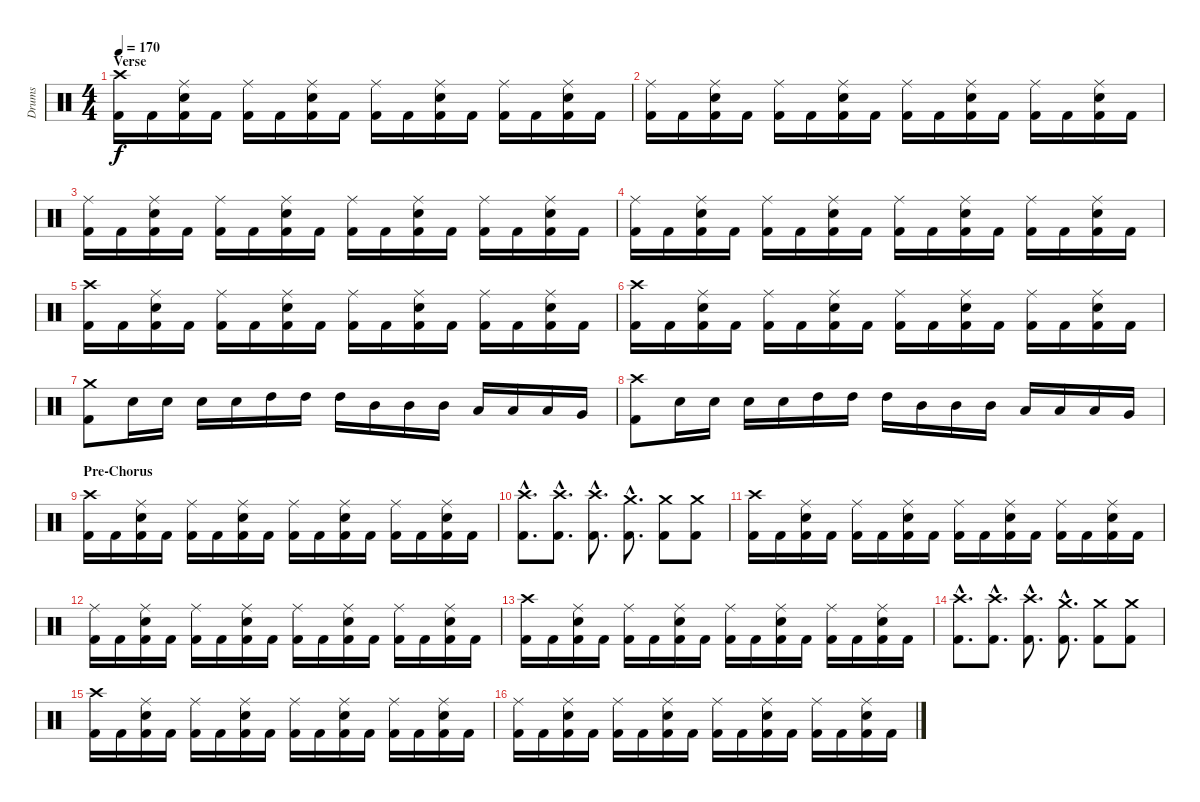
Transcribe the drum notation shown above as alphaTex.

\track ("Drums" "Drums") {instrument percussion}
\staff {score}
\articulation defaults
\ts (4 4)
\section ("" "Verse")
\tempo 170
\clef neutral
\ks c
("Crash high (hit)" "Kick (hit) 2").16{dy f} "Kick (hit) 2".16 ("Ride (middle)" "Snare (hit) 2" "Kick (hit) 2").16 "Kick (hit) 2".16 ("Ride (middle)" "Kick (hit) 2").16 "Kick (hit) 2".16 ("Ride (middle)" "Snare (hit) 2" "Kick (hit) 2").16 "Kick (hit) 2".16 ("Ride (middle)" "Kick (hit) 2").16 "Kick (hit) 2".16 ("Ride (middle)" "Snare (hit) 2" "Kick (hit) 2").16 "Kick (hit) 2".16 ("Ride (middle)" "Kick (hit) 2").16 "Kick (hit) 2".16 ("Ride (middle)" "Snare (hit) 2" "Kick (hit) 2").16 "Kick (hit) 2".16 |
("Ride (middle)" "Kick (hit) 2").16 "Kick (hit) 2".16 ("Ride (middle)" "Snare (hit) 2" "Kick (hit) 2").16 "Kick (hit) 2".16 ("Ride (middle)" "Kick (hit) 2").16 "Kick (hit) 2".16 ("Ride (middle)" "Snare (hit) 2" "Kick (hit) 2").16 "Kick (hit) 2".16 ("Ride (middle)" "Kick (hit) 2").16 "Kick (hit) 2".16 ("Ride (middle)" "Snare (hit) 2" "Kick (hit) 2").16 "Kick (hit) 2".16 ("Ride (middle)" "Kick (hit) 2").16 "Kick (hit) 2".16 ("Ride (middle)" "Snare (hit) 2" "Kick (hit) 2").16 "Kick (hit) 2".16 |
("Ride (middle)" "Kick (hit) 2").16 "Kick (hit) 2".16 ("Ride (middle)" "Snare (hit) 2" "Kick (hit) 2").16 "Kick (hit) 2".16 ("Ride (middle)" "Kick (hit) 2").16 "Kick (hit) 2".16 ("Ride (middle)" "Snare (hit) 2" "Kick (hit) 2").16 "Kick (hit) 2".16 ("Ride (middle)" "Kick (hit) 2").16 "Kick (hit) 2".16 ("Ride (middle)" "Snare (hit) 2" "Kick (hit) 2").16 "Kick (hit) 2".16 ("Ride (middle)" "Kick (hit) 2").16 "Kick (hit) 2".16 ("Ride (middle)" "Snare (hit) 2" "Kick (hit) 2").16 "Kick (hit) 2".16 |
("Ride (middle)" "Kick (hit) 2").16 "Kick (hit) 2".16 ("Ride (middle)" "Snare (hit) 2" "Kick (hit) 2").16 "Kick (hit) 2".16 ("Ride (middle)" "Kick (hit) 2").16 "Kick (hit) 2".16 ("Ride (middle)" "Snare (hit) 2" "Kick (hit) 2").16 "Kick (hit) 2".16 ("Ride (middle)" "Kick (hit) 2").16 "Kick (hit) 2".16 ("Ride (middle)" "Snare (hit) 2" "Kick (hit) 2").16 "Kick (hit) 2".16 ("Ride (middle)" "Kick (hit) 2").16 "Kick (hit) 2".16 ("Ride (middle)" "Snare (hit) 2" "Kick (hit) 2").16 "Kick (hit) 2".16 |
("Crash high (hit)" "Kick (hit) 2").16 "Kick (hit) 2".16 ("Ride (middle)" "Snare (hit) 2" "Kick (hit) 2").16 "Kick (hit) 2".16 ("Ride (middle)" "Kick (hit) 2").16 "Kick (hit) 2".16 ("Ride (middle)" "Snare (hit) 2" "Kick (hit) 2").16 "Kick (hit) 2".16 ("Ride (middle)" "Kick (hit) 2").16 "Kick (hit) 2".16 ("Ride (middle)" "Snare (hit) 2" "Kick (hit) 2").16 "Kick (hit) 2".16 ("Ride (middle)" "Kick (hit) 2").16 "Kick (hit) 2".16 ("Ride (middle)" "Snare (hit) 2" "Kick (hit) 2").16 "Kick (hit) 2".16 |
("Crash high (hit)" "Kick (hit) 2").16 "Kick (hit) 2".16 ("Ride (middle)" "Snare (hit) 2" "Kick (hit) 2").16 "Kick (hit) 2".16 ("Ride (middle)" "Kick (hit) 2").16 "Kick (hit) 2".16 ("Ride (middle)" "Snare (hit) 2" "Kick (hit) 2").16 "Kick (hit) 2".16 ("Ride (middle)" "Kick (hit) 2").16 "Kick (hit) 2".16 ("Ride (middle)" "Snare (hit) 2" "Kick (hit) 2").16 "Kick (hit) 2".16 ("Ride (middle)" "Kick (hit) 2").16 "Kick (hit) 2".16 ("Ride (middle)" "Snare (hit) 2" "Kick (hit) 2").16 "Kick (hit) 2".16 |
("Crash medium (hit)" "Kick (hit) 2").8 "Snare (hit) 2".16 "Snare (hit) 2".16 "Snare (hit) 2".16 "Snare (hit) 2".16 "High Tom (hit)".16 "High Tom (hit)".16 "High Tom (hit)".16 "Mid Tom (hit)".16 "Mid Tom (hit)".16 "Mid Tom (hit)".16 "Low Tom (hit)".16 "Low Tom (hit)".16 "Low Tom (hit)".16 "Very Low Tom (hit)".16 |
("Crash high (hit)" "Kick (hit) 2").8 "Snare (hit) 2".16 "Snare (hit) 2".16 "Snare (hit) 2".16 "Snare (hit) 2".16 "High Tom (hit)".16 "High Tom (hit)".16 "High Tom (hit)".16 "Mid Tom (hit)".16 "Mid Tom (hit)".16 "Mid Tom (hit)".16 "Low Tom (hit)".16 "Low Tom (hit)".16 "Low Tom (hit)".16 "Very Low Tom (hit)".16 |
\section ("" "Pre-Chorus")
("Crash high (hit)" "Kick (hit) 2").16 "Kick (hit) 2".16 ("Ride (middle)" "Snare (hit) 2" "Kick (hit) 2").16 "Kick (hit) 2".16 ("Ride (middle)" "Kick (hit) 2").16 "Kick (hit) 2".16 ("Ride (middle)" "Snare (hit) 2" "Kick (hit) 2").16 "Kick (hit) 2".16 ("Ride (middle)" "Kick (hit) 2").16 "Kick (hit) 2".16 ("Ride (middle)" "Snare (hit) 2" "Kick (hit) 2").16 "Kick (hit) 2".16 ("Ride (middle)" "Kick (hit) 2").16 "Kick (hit) 2".16 ("Ride (middle)" "Snare (hit) 2" "Kick (hit) 2").16 "Kick (hit) 2".16 |
("Crash high (hit)"{hac} "Kick (hit) 2"{hac}).8{d} ("Crash high (hit)"{hac} "Kick (hit) 2"{hac}).8{d} ("Crash high (hit)"{hac} "Kick (hit) 2"{hac}).8{d} ("Crash medium (hit)"{hac} "Kick (hit) 2"{hac}).8{d} ("Crash medium (hit)" "Kick (hit) 2").8 ("Crash medium (hit)" "Kick (hit) 2").8 |
("Crash high (hit)" "Kick (hit) 2").16 "Kick (hit) 2".16 ("Ride (middle)" "Snare (hit) 2" "Kick (hit) 2").16 "Kick (hit) 2".16 ("Ride (middle)" "Kick (hit) 2").16 "Kick (hit) 2".16 ("Ride (middle)" "Snare (hit) 2" "Kick (hit) 2").16 "Kick (hit) 2".16 ("Ride (middle)" "Kick (hit) 2").16 "Kick (hit) 2".16 ("Ride (middle)" "Snare (hit) 2" "Kick (hit) 2").16 "Kick (hit) 2".16 ("Ride (middle)" "Kick (hit) 2").16 "Kick (hit) 2".16 ("Ride (middle)" "Snare (hit) 2" "Kick (hit) 2").16 "Kick (hit) 2".16 |
("Ride (middle)" "Kick (hit) 2").16 "Kick (hit) 2".16 ("Ride (middle)" "Snare (hit) 2" "Kick (hit) 2").16 "Kick (hit) 2".16 ("Ride (middle)" "Kick (hit) 2").16 "Kick (hit) 2".16 ("Ride (middle)" "Snare (hit) 2" "Kick (hit) 2").16 "Kick (hit) 2".16 ("Ride (middle)" "Kick (hit) 2").16 "Kick (hit) 2".16 ("Ride (middle)" "Snare (hit) 2" "Kick (hit) 2").16 "Kick (hit) 2".16 ("Ride (middle)" "Kick (hit) 2").16 "Kick (hit) 2".16 ("Ride (middle)" "Snare (hit) 2" "Kick (hit) 2").16 "Kick (hit) 2".16 |
("Crash high (hit)" "Kick (hit) 2").16 "Kick (hit) 2".16 ("Ride (middle)" "Snare (hit) 2" "Kick (hit) 2").16 "Kick (hit) 2".16 ("Ride (middle)" "Kick (hit) 2").16 "Kick (hit) 2".16 ("Ride (middle)" "Snare (hit) 2" "Kick (hit) 2").16 "Kick (hit) 2".16 ("Ride (middle)" "Kick (hit) 2").16 "Kick (hit) 2".16 ("Ride (middle)" "Snare (hit) 2" "Kick (hit) 2").16 "Kick (hit) 2".16 ("Ride (middle)" "Kick (hit) 2").16 "Kick (hit) 2".16 ("Ride (middle)" "Snare (hit) 2" "Kick (hit) 2").16 "Kick (hit) 2".16 |
("Crash high (hit)"{hac} "Kick (hit) 2"{hac}).8{d} ("Crash high (hit)"{hac} "Kick (hit) 2"{hac}).8{d} ("Crash high (hit)"{hac} "Kick (hit) 2"{hac}).8{d} ("Crash medium (hit)"{hac} "Kick (hit) 2"{hac}).8{d} ("Crash medium (hit)" "Kick (hit) 2").8 ("Crash medium (hit)" "Kick (hit) 2").8 |
("Crash high (hit)" "Kick (hit) 2").16 "Kick (hit) 2".16 ("Ride (middle)" "Snare (hit) 2" "Kick (hit) 2").16 "Kick (hit) 2".16 ("Ride (middle)" "Kick (hit) 2").16 "Kick (hit) 2".16 ("Ride (middle)" "Snare (hit) 2" "Kick (hit) 2").16 "Kick (hit) 2".16 ("Ride (middle)" "Kick (hit) 2").16 "Kick (hit) 2".16 ("Ride (middle)" "Snare (hit) 2" "Kick (hit) 2").16 "Kick (hit) 2".16 ("Ride (middle)" "Kick (hit) 2").16 "Kick (hit) 2".16 ("Ride (middle)" "Snare (hit) 2" "Kick (hit) 2").16 "Kick (hit) 2".16 |
("Ride (middle)" "Kick (hit) 2").16 "Kick (hit) 2".16 ("Ride (middle)" "Snare (hit) 2" "Kick (hit) 2").16 "Kick (hit) 2".16 ("Ride (middle)" "Kick (hit) 2").16 "Kick (hit) 2".16 ("Ride (middle)" "Snare (hit) 2" "Kick (hit) 2").16 "Kick (hit) 2".16 ("Ride (middle)" "Kick (hit) 2").16 "Kick (hit) 2".16 ("Ride (middle)" "Snare (hit) 2" "Kick (hit) 2").16 "Kick (hit) 2".16 ("Ride (middle)" "Kick (hit) 2").16 "Kick (hit) 2".16 ("Ride (middle)" "Snare (hit) 2" "Kick (hit) 2").16 "Kick (hit) 2".16
